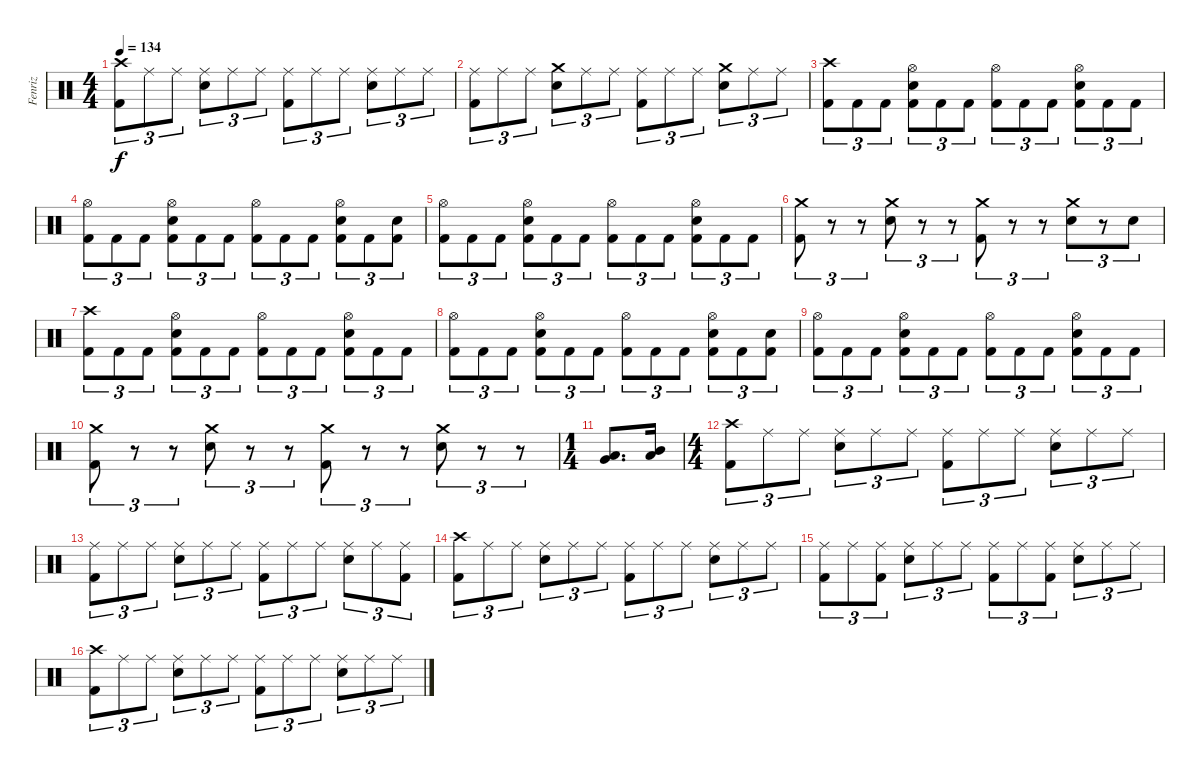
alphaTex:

\track ("Fenriz" "Fenriz") {instrument percussion}
\staff {score}
\articulation defaults
\ts (4 4)
\tempo 134
\clef neutral
\ks c
("Crash high (hit)" "Kick (hit) 2").8{tu (3 2) dy f} "Ride (middle)".8{tu (3 2)} "Ride (middle)".8{tu (3 2)} ("Ride (middle)" "Snare (hit) 2").8{tu (3 2)} "Ride (middle)".8{tu (3 2)} "Ride (middle)".8{tu (3 2)} ("Ride (middle)" "Kick (hit) 2").8{tu (3 2)} "Ride (middle)".8{tu (3 2)} "Ride (middle)".8{tu (3 2)} ("Ride (middle)" "Snare (hit) 2").8{tu (3 2)} "Ride (middle)".8{tu (3 2)} "Ride (middle)".8{tu (3 2)} |
("Ride (middle)" "Kick (hit) 2").8{tu (3 2)} "Ride (middle)".8{tu (3 2)} "Ride (middle)".8{tu (3 2)} ("Crash medium (hit)" "Snare (hit) 2").8{tu (3 2)} "Ride (middle)".8{tu (3 2)} "Ride (middle)".8{tu (3 2)} ("Ride (middle)" "Kick (hit) 2").8{tu (3 2)} "Ride (middle)".8{tu (3 2)} "Ride (middle)".8{tu (3 2)} ("Crash medium (hit)" "Snare (hit) 2").8{tu (3 2)} "Ride (middle)".8{tu (3 2)} "Ride (middle)".8{tu (3 2)} |
("Crash high (hit)" "Kick (hit) 2").8{tu (3 2)} "Kick (hit) 2".8{tu (3 2)} "Kick (hit) 2".8{tu (3 2)} ("Hi-Hat (open)" "Snare (hit) 2" "Kick (hit) 2").8{tu (3 2)} "Kick (hit) 2".8{tu (3 2)} "Kick (hit) 2".8{tu (3 2)} ("Hi-Hat (open)" "Kick (hit) 2").8{tu (3 2)} "Kick (hit) 2".8{tu (3 2)} "Kick (hit) 2".8{tu (3 2)} ("Hi-Hat (open)" "Snare (hit) 2" "Kick (hit) 2").8{tu (3 2)} "Kick (hit) 2".8{tu (3 2)} "Kick (hit) 2".8{tu (3 2)} |
("Hi-Hat (open)" "Kick (hit) 2").8{tu (3 2)} "Kick (hit) 2".8{tu (3 2)} "Kick (hit) 2".8{tu (3 2)} ("Hi-Hat (open)" "Snare (hit) 2" "Kick (hit) 2").8{tu (3 2)} "Kick (hit) 2".8{tu (3 2)} "Kick (hit) 2".8{tu (3 2)} ("Hi-Hat (open)" "Kick (hit) 2").8{tu (3 2)} "Kick (hit) 2".8{tu (3 2)} "Kick (hit) 2".8{tu (3 2)} ("Hi-Hat (open)" "Snare (hit) 2" "Kick (hit) 2").8{tu (3 2)} "Kick (hit) 2".8{tu (3 2)} ("Snare (hit) 2" "Kick (hit) 2").8{tu (3 2)} |
("Hi-Hat (open)" "Kick (hit) 2").8{tu (3 2)} "Kick (hit) 2".8{tu (3 2)} "Kick (hit) 2".8{tu (3 2)} ("Hi-Hat (open)" "Snare (hit) 2" "Kick (hit) 2").8{tu (3 2)} "Kick (hit) 2".8{tu (3 2)} "Kick (hit) 2".8{tu (3 2)} ("Hi-Hat (open)" "Kick (hit) 2").8{tu (3 2)} "Kick (hit) 2".8{tu (3 2)} "Kick (hit) 2".8{tu (3 2)} ("Hi-Hat (open)" "Snare (hit) 2" "Kick (hit) 2").8{tu (3 2)} "Kick (hit) 2".8{tu (3 2)} "Kick (hit) 2".8{tu (3 2)} |
("Crash medium (hit)" "Kick (hit) 2").8{tu (3 2)} r.8{tu (3 2)} r.8{tu (3 2)} ("Crash medium (hit)" "Snare (hit) 2").8{tu (3 2)} r.8{tu (3 2)} r.8{tu (3 2)} ("Crash medium (hit)" "Kick (hit) 2").8{tu (3 2)} r.8{tu (3 2)} r.8{tu (3 2)} ("Crash medium (hit)" "Snare (hit) 2").8{tu (3 2)} r.8{tu (3 2)} "Snare (hit) 2".8{tu (3 2)} |
("Crash high (hit)" "Kick (hit) 2").8{tu (3 2)} "Kick (hit) 2".8{tu (3 2)} "Kick (hit) 2".8{tu (3 2)} ("Hi-Hat (open)" "Snare (hit) 2" "Kick (hit) 2").8{tu (3 2)} "Kick (hit) 2".8{tu (3 2)} "Kick (hit) 2".8{tu (3 2)} ("Hi-Hat (open)" "Kick (hit) 2").8{tu (3 2)} "Kick (hit) 2".8{tu (3 2)} "Kick (hit) 2".8{tu (3 2)} ("Hi-Hat (open)" "Snare (hit) 2" "Kick (hit) 2").8{tu (3 2)} "Kick (hit) 2".8{tu (3 2)} "Kick (hit) 2".8{tu (3 2)} |
("Hi-Hat (open)" "Kick (hit) 2").8{tu (3 2)} "Kick (hit) 2".8{tu (3 2)} "Kick (hit) 2".8{tu (3 2)} ("Hi-Hat (open)" "Snare (hit) 2" "Kick (hit) 2").8{tu (3 2)} "Kick (hit) 2".8{tu (3 2)} "Kick (hit) 2".8{tu (3 2)} ("Hi-Hat (open)" "Kick (hit) 2").8{tu (3 2)} "Kick (hit) 2".8{tu (3 2)} "Kick (hit) 2".8{tu (3 2)} ("Hi-Hat (open)" "Snare (hit) 2" "Kick (hit) 2").8{tu (3 2)} "Kick (hit) 2".8{tu (3 2)} ("Snare (hit) 2" "Kick (hit) 2").8{tu (3 2)} |
("Hi-Hat (open)" "Kick (hit) 2").8{tu (3 2)} "Kick (hit) 2".8{tu (3 2)} "Kick (hit) 2".8{tu (3 2)} ("Hi-Hat (open)" "Snare (hit) 2" "Kick (hit) 2").8{tu (3 2)} "Kick (hit) 2".8{tu (3 2)} "Kick (hit) 2".8{tu (3 2)} ("Hi-Hat (open)" "Kick (hit) 2").8{tu (3 2)} "Kick (hit) 2".8{tu (3 2)} "Kick (hit) 2".8{tu (3 2)} ("Hi-Hat (open)" "Snare (hit) 2" "Kick (hit) 2").8{tu (3 2)} "Kick (hit) 2".8{tu (3 2)} "Kick (hit) 2".8{tu (3 2)} |
("Crash medium (hit)" "Kick (hit) 2").8{tu (3 2)} r.8{tu (3 2)} r.8{tu (3 2)} ("Crash medium (hit)" "Snare (hit) 2").8{tu (3 2)} r.8{tu (3 2)} r.8{tu (3 2)} ("Crash medium (hit)" "Kick (hit) 2").8{tu (3 2)} r.8{tu (3 2)} r.8{tu (3 2)} ("Crash medium (hit)" "Snare (hit) 2").8{tu (3 2)} r.8{tu (3 2)} r.8{tu (3 2)} |
\ts (1 4)
("Low Tom (hit)" "Very Low Tom (hit)").8{d} ("Mid Tom (hit)" "Low Tom (hit)").16 |
\ts (4 4)
("Crash high (hit)" "Kick (hit) 2").8{tu (3 2)} "Ride (middle)".8{tu (3 2)} "Ride (middle)".8{tu (3 2)} ("Ride (middle)" "Snare (hit) 2").8{tu (3 2)} "Ride (middle)".8{tu (3 2)} "Ride (middle)".8{tu (3 2)} ("Ride (middle)" "Kick (hit) 2").8{tu (3 2)} "Ride (middle)".8{tu (3 2)} "Ride (middle)".8{tu (3 2)} ("Ride (middle)" "Snare (hit) 2").8{tu (3 2)} "Ride (middle)".8{tu (3 2)} "Ride (middle)".8{tu (3 2)} |
("Ride (middle)" "Kick (hit) 2").8{tu (3 2)} "Ride (middle)".8{tu (3 2)} "Ride (middle)".8{tu (3 2)} ("Ride (middle)" "Snare (hit) 2").8{tu (3 2)} "Ride (middle)".8{tu (3 2)} "Ride (middle)".8{tu (3 2)} ("Ride (middle)" "Kick (hit) 2").8{tu (3 2)} "Ride (middle)".8{tu (3 2)} "Ride (middle)".8{tu (3 2)} ("Ride (middle)" "Snare (hit) 2").8{tu (3 2)} "Ride (middle)".8{tu (3 2)} ("Ride (middle)" "Kick (hit) 2").8{tu (3 2)} |
("Crash high (hit)" "Kick (hit) 2").8{tu (3 2)} "Ride (middle)".8{tu (3 2)} "Ride (middle)".8{tu (3 2)} ("Ride (middle)" "Snare (hit) 2").8{tu (3 2)} "Ride (middle)".8{tu (3 2)} "Ride (middle)".8{tu (3 2)} ("Ride (middle)" "Kick (hit) 2").8{tu (3 2)} "Ride (middle)".8{tu (3 2)} "Ride (middle)".8{tu (3 2)} ("Ride (middle)" "Snare (hit) 2").8{tu (3 2)} "Ride (middle)".8{tu (3 2)} "Ride (middle)".8{tu (3 2)} |
("Ride (middle)" "Kick (hit) 2").8{tu (3 2)} "Ride (middle)".8{tu (3 2)} ("Ride (middle)" "Kick (hit) 2").8{tu (3 2)} ("Ride (middle)" "Snare (hit) 2").8{tu (3 2)} "Ride (middle)".8{tu (3 2)} "Ride (middle)".8{tu (3 2)} ("Ride (middle)" "Kick (hit) 2").8{tu (3 2)} "Ride (middle)".8{tu (3 2)} ("Ride (middle)" "Kick (hit) 2").8{tu (3 2)} ("Ride (middle)" "Snare (hit) 2").8{tu (3 2)} "Ride (middle)".8{tu (3 2)} "Ride (middle)".8{tu (3 2)} |
("Crash high (hit)" "Kick (hit) 2").8{tu (3 2)} "Ride (middle)".8{tu (3 2)} "Ride (middle)".8{tu (3 2)} ("Ride (middle)" "Snare (hit) 2").8{tu (3 2)} "Ride (middle)".8{tu (3 2)} "Ride (middle)".8{tu (3 2)} ("Ride (middle)" "Kick (hit) 2").8{tu (3 2)} "Ride (middle)".8{tu (3 2)} "Ride (middle)".8{tu (3 2)} ("Ride (middle)" "Snare (hit) 2").8{tu (3 2)} "Ride (middle)".8{tu (3 2)} "Ride (middle)".8{tu (3 2)}
